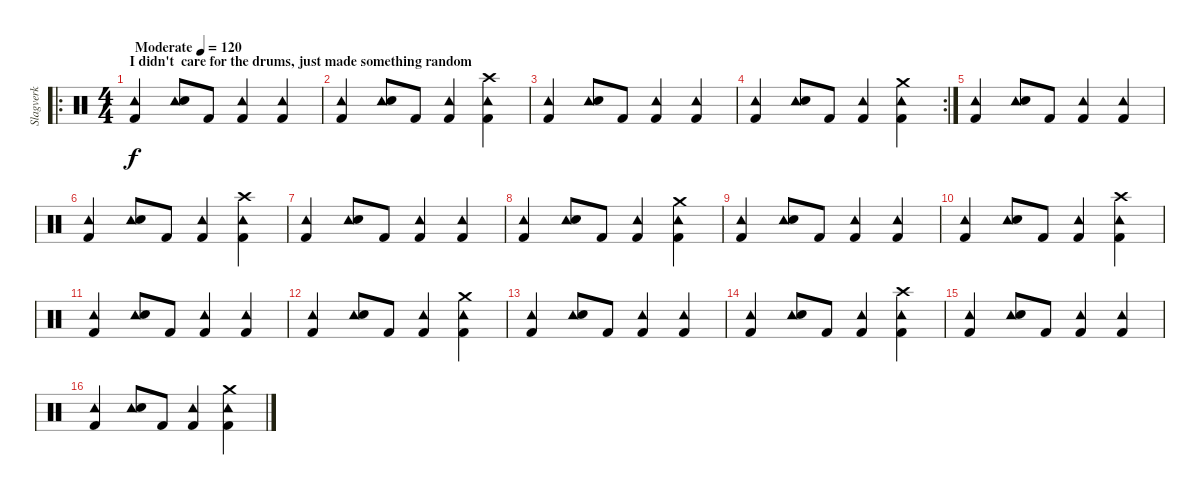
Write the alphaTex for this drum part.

\track ("Slagverk" "Slagverk") {instrument percussion}
\staff {score}
\articulation defaults
\ro
\ts (4 4)
\section ("" "I didn't  care for the drums, just made something random")
\tempo (120 "Moderate")
\clef neutral
\ks c
("Tambourine (hit)" "Kick (hit) 2").4{dy f} ("Tambourine (hit)" "Snare (hit) 2").8 "Kick (hit) 2".8 ("Tambourine (hit)" "Kick (hit) 2").4 ("Tambourine (hit)" "Kick (hit) 2").4 |
("Tambourine (hit)" "Kick (hit) 2").4 ("Tambourine (hit)" "Snare (hit) 2").8 "Kick (hit) 2".8 ("Tambourine (hit)" "Kick (hit) 2").4 ("Crash high (hit)" "Tambourine (hit)" "Kick (hit) 2").4 |
("Tambourine (hit)" "Kick (hit) 2").4 ("Tambourine (hit)" "Snare (hit) 2").8 "Kick (hit) 2".8 ("Tambourine (hit)" "Kick (hit) 2").4 ("Tambourine (hit)" "Kick (hit) 2").4 |
\rc 2
("Tambourine (hit)" "Kick (hit) 2").4 ("Tambourine (hit)" "Snare (hit) 2").8 "Kick (hit) 2".8 ("Tambourine (hit)" "Kick (hit) 2").4 ("Crash medium (hit)" "Tambourine (hit)" "Kick (hit) 2").4 |
("Tambourine (hit)" "Kick (hit) 2").4 ("Tambourine (hit)" "Snare (hit) 2").8 "Kick (hit) 2".8 ("Tambourine (hit)" "Kick (hit) 2").4 ("Tambourine (hit)" "Kick (hit) 2").4 |
("Tambourine (hit)" "Kick (hit) 2").4 ("Tambourine (hit)" "Snare (hit) 2").8 "Kick (hit) 2".8 ("Tambourine (hit)" "Kick (hit) 2").4 ("Crash high (hit)" "Tambourine (hit)" "Kick (hit) 2").4 |
("Tambourine (hit)" "Kick (hit) 2").4 ("Tambourine (hit)" "Snare (hit) 2").8 "Kick (hit) 2".8 ("Tambourine (hit)" "Kick (hit) 2").4 ("Tambourine (hit)" "Kick (hit) 2").4 |
("Tambourine (hit)" "Kick (hit) 2").4 ("Tambourine (hit)" "Snare (hit) 2").8 "Kick (hit) 2".8 ("Tambourine (hit)" "Kick (hit) 2").4 ("Crash medium (hit)" "Tambourine (hit)" "Kick (hit) 2").4 |
("Tambourine (hit)" "Kick (hit) 2").4 ("Tambourine (hit)" "Snare (hit) 2").8 "Kick (hit) 2".8 ("Tambourine (hit)" "Kick (hit) 2").4 ("Tambourine (hit)" "Kick (hit) 2").4 |
("Tambourine (hit)" "Kick (hit) 2").4 ("Tambourine (hit)" "Snare (hit) 2").8 "Kick (hit) 2".8 ("Tambourine (hit)" "Kick (hit) 2").4 ("Crash high (hit)" "Tambourine (hit)" "Kick (hit) 2").4 |
("Tambourine (hit)" "Kick (hit) 2").4 ("Tambourine (hit)" "Snare (hit) 2").8 "Kick (hit) 2".8 ("Tambourine (hit)" "Kick (hit) 2").4 ("Tambourine (hit)" "Kick (hit) 2").4 |
("Tambourine (hit)" "Kick (hit) 2").4 ("Tambourine (hit)" "Snare (hit) 2").8 "Kick (hit) 2".8 ("Tambourine (hit)" "Kick (hit) 2").4 ("Crash medium (hit)" "Tambourine (hit)" "Kick (hit) 2").4 |
("Tambourine (hit)" "Kick (hit) 2").4 ("Tambourine (hit)" "Snare (hit) 2").8 "Kick (hit) 2".8 ("Tambourine (hit)" "Kick (hit) 2").4 ("Tambourine (hit)" "Kick (hit) 2").4 |
("Tambourine (hit)" "Kick (hit) 2").4 ("Tambourine (hit)" "Snare (hit) 2").8 "Kick (hit) 2".8 ("Tambourine (hit)" "Kick (hit) 2").4 ("Crash high (hit)" "Tambourine (hit)" "Kick (hit) 2").4 |
("Tambourine (hit)" "Kick (hit) 2").4 ("Tambourine (hit)" "Snare (hit) 2").8 "Kick (hit) 2".8 ("Tambourine (hit)" "Kick (hit) 2").4 ("Tambourine (hit)" "Kick (hit) 2").4 |
("Tambourine (hit)" "Kick (hit) 2").4 ("Tambourine (hit)" "Snare (hit) 2").8 "Kick (hit) 2".8 ("Tambourine (hit)" "Kick (hit) 2").4 ("Crash medium (hit)" "Tambourine (hit)" "Kick (hit) 2").4
